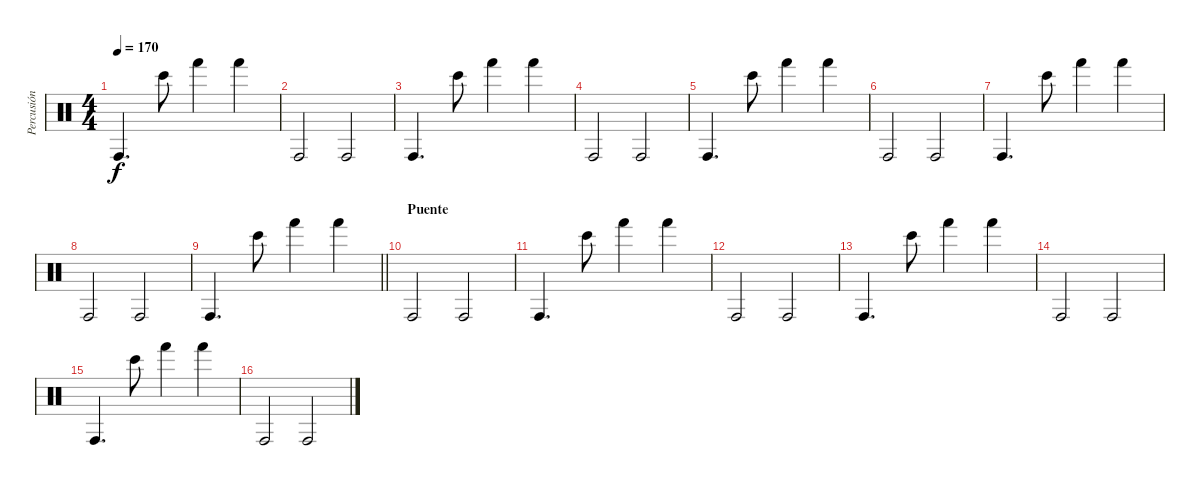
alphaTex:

\track ("Percusión" "Percusión") {instrument percussion}
\staff {score}
\articulation defaults
\ts (4 4)
\tempo 170
\clef neutral
\ks c "Conga high (hit)".4{d dy f} "Bongo High (hit)".8 "Hand (hit)".4 "Hand (hit)".4
|
"Conga high (hit)".2 "Conga high (hit)".2 |
"Conga high (hit)".4{d} "Bongo High (hit)".8 "Hand (hit)".4 "Hand (hit)".4 |
"Conga high (hit)".2 "Conga high (hit)".2 |
"Conga high (hit)".4{d} "Bongo High (hit)".8 "Hand (hit)".4 "Hand (hit)".4 |
"Conga high (hit)".2 "Conga high (hit)".2 |
"Conga high (hit)".4{d} "Bongo High (hit)".8 "Hand (hit)".4 "Hand (hit)".4 |
"Conga high (hit)".2 "Conga high (hit)".2 |
\barLineRight lightlight "Conga high (hit)".4{d} "Bongo High (hit)".8 "Hand (hit)".4 "Hand (hit)".4
|
\section ("" "Puente")
"Conga high (hit)".2 "Conga high (hit)".2 |
"Conga high (hit)".4{d} "Bongo High (hit)".8 "Hand (hit)".4 "Hand (hit)".4 |
"Conga high (hit)".2 "Conga high (hit)".2 |
"Conga high (hit)".4{d} "Bongo High (hit)".8 "Hand (hit)".4 "Hand (hit)".4 |
"Conga high (hit)".2 "Conga high (hit)".2 |
"Conga high (hit)".4{d} "Bongo High (hit)".8 "Hand (hit)".4 "Hand (hit)".4 |
"Conga high (hit)".2 "Conga high (hit)".2
